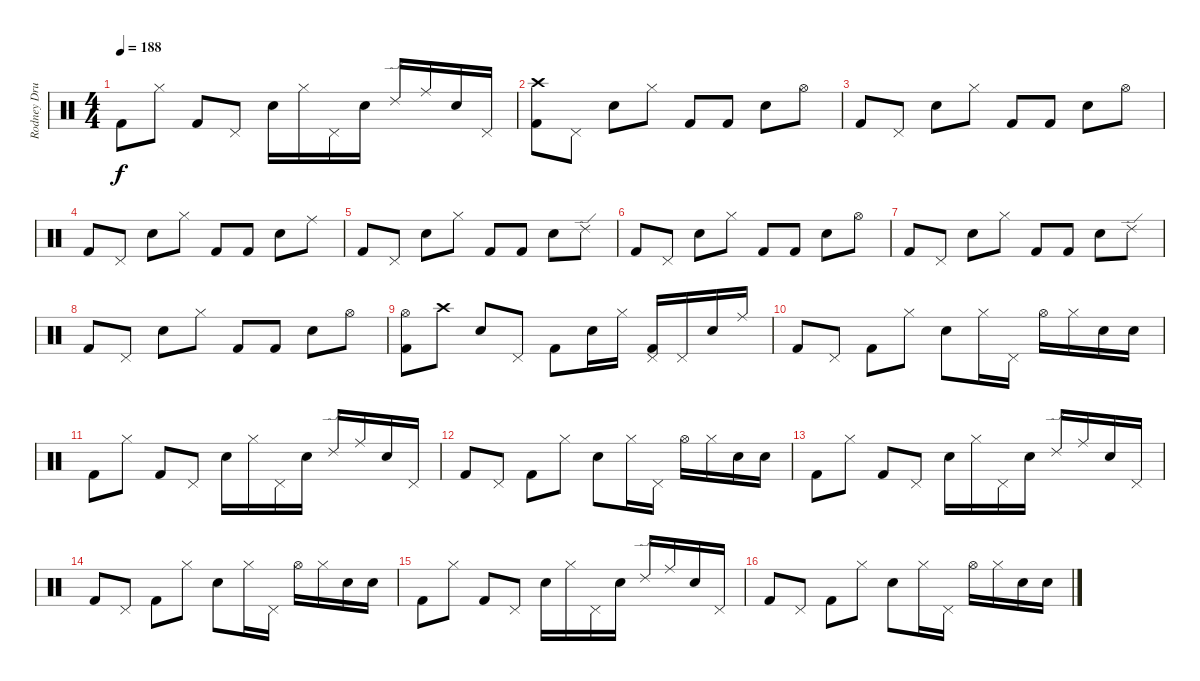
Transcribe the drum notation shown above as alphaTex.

\track ("Rodney Drums" "Rodney Dru") {instrument percussion}
\staff {score}
\articulation defaults
\ts (4 4)
\tempo 188
\clef neutral
\ks c "Kick (hit) 2".8{dy f} "Hi-Hat (closed)".8 "Kick (hit) 2".8 "Pedal Hi-Hat (hit)".8 "Electric Snare (hit)".16 "Hi-Hat (closed)".16 "Pedal Hi-Hat (hit)".16 "Electric Snare (hit)".16 "Ride (edge) 2".16 "Ride (middle)".16 "Electric Snare (hit)".16 "Pedal Hi-Hat (hit)".16
|
("Crash high (hit)" "Kick (hit) 2").8 "Pedal Hi-Hat (hit)".8 "Electric Snare (hit)".8 "Hi-Hat (closed)".8 "Kick (hit) 2".8 "Kick (hit) 2".8 "Electric Snare (hit)".8 "Hi-Hat (open)".8 |
"Kick (hit) 2".8 "Pedal Hi-Hat (hit)".8 "Electric Snare (hit)".8 "Hi-Hat (closed)".8 "Kick (hit) 2".8 "Kick (hit) 2".8 "Electric Snare (hit)".8 "Hi-Hat (open)".8 |
"Kick (hit) 2".8 "Pedal Hi-Hat (hit)".8 "Electric Snare (hit)".8 "Hi-Hat (closed)".8 "Kick (hit) 2".8 "Kick (hit) 2".8 "Electric Snare (hit)".8 "Ride (middle)".8 |
"Kick (hit) 2".8 "Pedal Hi-Hat (hit)".8 "Electric Snare (hit)".8 "Hi-Hat (closed)".8 "Kick (hit) 2".8 "Kick (hit) 2".8 "Electric Snare (hit)".8 "Ride (edge) 2".8 |
"Kick (hit) 2".8 "Pedal Hi-Hat (hit)".8 "Electric Snare (hit)".8 "Hi-Hat (closed)".8 "Kick (hit) 2".8 "Kick (hit) 2".8 "Electric Snare (hit)".8 "Hi-Hat (open)".8 |
"Kick (hit) 2".8 "Pedal Hi-Hat (hit)".8 "Electric Snare (hit)".8 "Hi-Hat (closed)".8 "Kick (hit) 2".8 "Kick (hit) 2".8 "Electric Snare (hit)".8 "Ride (edge) 2".8 |
"Kick (hit) 2".8 "Pedal Hi-Hat (hit)".8 "Electric Snare (hit)".8 "Hi-Hat (closed)".8 "Kick (hit) 2".8 "Kick (hit) 2".8 "Electric Snare (hit)".8 "Hi-Hat (open)".8 |
("Hi-Hat (open)" "Kick (hit) 2").8 "Crash high (hit)".8 "Electric Snare (hit)".8 "Pedal Hi-Hat (hit)".8 "Kick (hit) 2".8 "Electric Snare (hit)".16 "Hi-Hat (closed)".16 ("Pedal Hi-Hat (hit)" "Kick (hit) 2").16 "Pedal Hi-Hat (hit)".16 "Electric Snare (hit)".16 "Ride (middle)".16 |
"Kick (hit) 2".8 "Pedal Hi-Hat (hit)".8 "Kick (hit) 2".8 "Hi-Hat (closed)".8 "Electric Snare (hit)".8 "Hi-Hat (closed)".16 "Pedal Hi-Hat (hit)".16 "Hi-Hat (open)".16 "Hi-Hat (closed)".16 "Electric Snare (hit)".16 "Electric Snare (hit)".16 |
"Kick (hit) 2".8 "Hi-Hat (closed)".8 "Kick (hit) 2".8 "Pedal Hi-Hat (hit)".8 "Electric Snare (hit)".16 "Hi-Hat (closed)".16 "Pedal Hi-Hat (hit)".16 "Electric Snare (hit)".16 "Ride (edge) 2".16 "Ride (middle)".16 "Electric Snare (hit)".16 "Pedal Hi-Hat (hit)".16 |
"Kick (hit) 2".8 "Pedal Hi-Hat (hit)".8 "Kick (hit) 2".8 "Hi-Hat (closed)".8 "Electric Snare (hit)".8 "Hi-Hat (closed)".16 "Pedal Hi-Hat (hit)".16 "Hi-Hat (open)".16 "Hi-Hat (closed)".16 "Electric Snare (hit)".16 "Electric Snare (hit)".16 |
"Kick (hit) 2".8 "Hi-Hat (closed)".8 "Kick (hit) 2".8 "Pedal Hi-Hat (hit)".8 "Electric Snare (hit)".16 "Hi-Hat (closed)".16 "Pedal Hi-Hat (hit)".16 "Electric Snare (hit)".16 "Ride (edge) 2".16 "Ride (middle)".16 "Electric Snare (hit)".16 "Pedal Hi-Hat (hit)".16 |
"Kick (hit) 2".8 "Pedal Hi-Hat (hit)".8 "Kick (hit) 2".8 "Hi-Hat (closed)".8 "Electric Snare (hit)".8 "Hi-Hat (closed)".16 "Pedal Hi-Hat (hit)".16 "Hi-Hat (open)".16 "Hi-Hat (closed)".16 "Electric Snare (hit)".16 "Electric Snare (hit)".16 |
"Kick (hit) 2".8 "Hi-Hat (closed)".8 "Kick (hit) 2".8 "Pedal Hi-Hat (hit)".8 "Electric Snare (hit)".16 "Hi-Hat (closed)".16 "Pedal Hi-Hat (hit)".16 "Electric Snare (hit)".16 "Ride (edge) 2".16 "Ride (middle)".16 "Electric Snare (hit)".16 "Pedal Hi-Hat (hit)".16 |
"Kick (hit) 2".8 "Pedal Hi-Hat (hit)".8 "Kick (hit) 2".8 "Hi-Hat (closed)".8 "Electric Snare (hit)".8 "Hi-Hat (closed)".16 "Pedal Hi-Hat (hit)".16 "Hi-Hat (open)".16 "Hi-Hat (closed)".16 "Electric Snare (hit)".16 "Electric Snare (hit)".16
